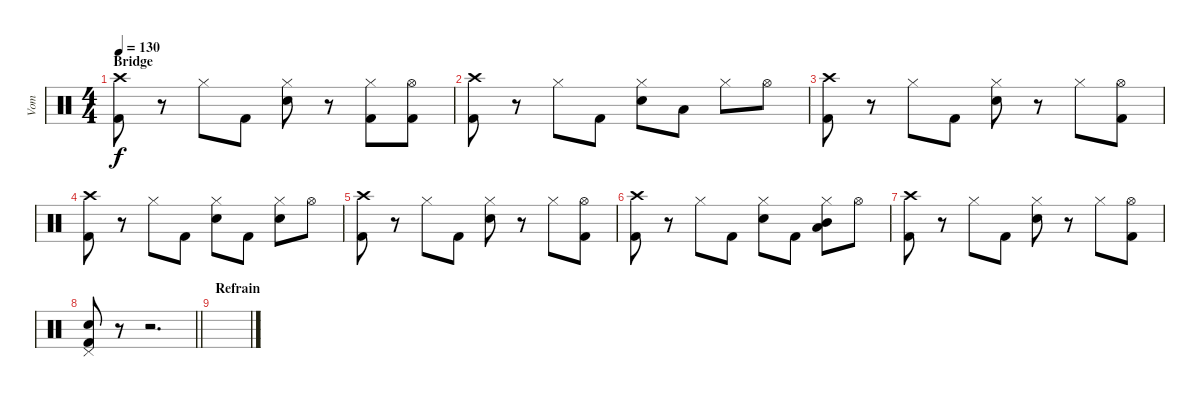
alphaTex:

\track ("Vom" "Vom") {instrument percussion}
\staff {score}
\articulation defaults
\ts (4 4)
\section ("" "Bridge")
\tempo 130
\clef neutral
\ks c
("Crash high (hit)" "Kick (hit) 2").8{dy f} r.8 "Hi-Hat (closed)".8 "Kick (hit) 2".8 ("Hi-Hat (closed)" "Snare (hit) 2").8 r.8 ("Hi-Hat (closed)" "Kick (hit) 2").8 ("Hi-Hat (open)" "Kick (hit) 2").8 |
("Crash high (hit)" "Kick (hit) 2").8 r.8 "Hi-Hat (closed)".8 "Kick (hit) 2".8 ("Hi-Hat (closed)" "Snare (hit) 2").8 "Low Tom (hit)".8 "Hi-Hat (closed)".8 "Hi-Hat (open)".8 |
("Crash high (hit)" "Kick (hit) 2").8 r.8 "Hi-Hat (closed)".8 "Kick (hit) 2".8 ("Hi-Hat (closed)" "Snare (hit) 2").8 r.8 "Hi-Hat (closed)".8 ("Hi-Hat (open)" "Kick (hit) 2").8 |
("Crash high (hit)" "Kick (hit) 2").8 r.8 "Hi-Hat (closed)".8 "Kick (hit) 2".8 ("Hi-Hat (closed)" "Snare (hit) 2").8 "Kick (hit) 2".8 ("Hi-Hat (closed)" "Snare (hit) 2").8 "Hi-Hat (open)".8 |
("Crash high (hit)" "Kick (hit) 2").8 r.8 "Hi-Hat (closed)".8 "Kick (hit) 2".8 ("Hi-Hat (closed)" "Snare (hit) 2").8 r.8 "Hi-Hat (closed)".8 ("Hi-Hat (open)" "Kick (hit) 2").8 |
("Crash high (hit)" "Kick (hit) 2").8 r.8 "Hi-Hat (closed)".8 "Kick (hit) 2".8 ("Hi-Hat (closed)" "Snare (hit) 2").8 "Kick (hit) 2".8 ("Hi-Hat (closed)" "Mid Tom (hit)" "Low Tom (hit)").8 "Hi-Hat (open)".8 |
("Crash high (hit)" "Kick (hit) 2").8 r.8 "Hi-Hat (closed)".8 "Kick (hit) 2".8 ("Hi-Hat (closed)" "Snare (hit) 2").8 r.8 "Hi-Hat (closed)".8 ("Hi-Hat (open)" "Kick (hit) 2").8 |
\barLineRight lightlight
("Pedal Hi-Hat (hit)" "Snare (hit) 2" "Kick (hit) 2").8 r.8 r.2{d} |
\section ("" "Refrain")
